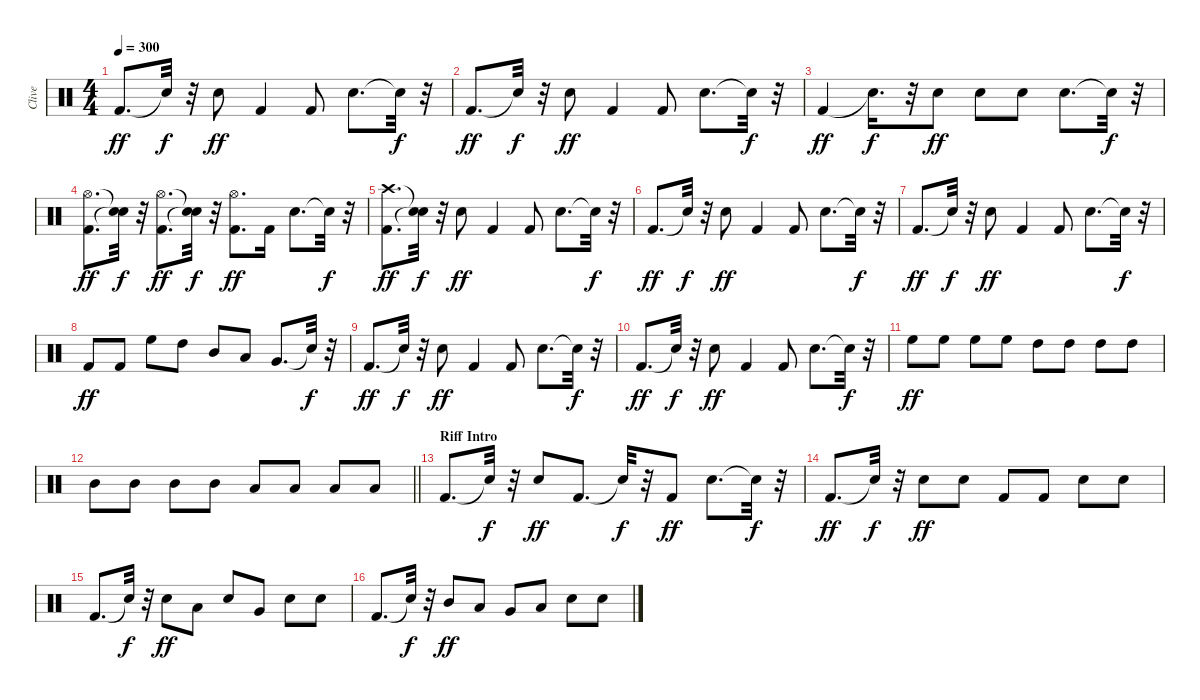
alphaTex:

\track ("Clive" "Clive") {instrument percussion}
\staff {score}
\articulation defaults
\ts (4 4)
\tempo 300
\clef neutral
\ks c "Kick (hit) 2".8{d dy ff} "Snare (hit)"{t}.32{dy f}
r.32 "Snare (hit) 2".8{dy ff} "Kick (hit) 2".4 "Kick (hit) 2".8 "Snare (hit) 2".8{d} "Snare (hit)"{t}.32{dy f} r.32 |
"Kick (hit) 2".8{d dy ff} "Snare (hit)"{t}.32{dy f} r.32 "Snare (hit) 2".8{dy ff} "Kick (hit) 2".4 "Kick (hit) 2".8 "Snare (hit) 2".8{d} "Snare (hit)"{t}.32{dy f} r.32 |
"Kick (hit) 2".4{dy ff} "Snare (hit)"{t}.16{d dy f} r.32 "Snare (hit) 2".8{dy ff} "Snare (hit) 2".8 "Snare (hit) 2".8 "Snare (hit) 2".8{d} "Snare (hit)"{t}.32{dy f} r.32 |
("Kick (hit) 2" "Hi-Hat (open)").8{d dy ff} ("Snare (hit)"{t} "Snare (hit)"{t}).32{dy f} r.32 ("Kick (hit) 2" "Hi-Hat (open)").8{d dy ff} ("Snare (hit)"{t} "Snare (hit)"{t}).32{dy f} r.32 ("Kick (hit) 2" "Hi-Hat (open)").8{d dy ff} "Kick (hit) 2".16 "Snare (hit) 2".8{d} "Snare (hit)"{t}.32{dy f} r.32 |
("Kick (hit) 2" "Crash high (hit)").8{d dy ff} ("Snare (hit)"{t} "Snare (hit)"{t}).32{dy f} r.32 "Snare (hit) 2".8{dy ff} "Kick (hit) 2".4 "Kick (hit) 2".8 "Snare (hit) 2".8{d} "Snare (hit)"{t}.32{dy f} r.32 |
"Kick (hit) 2".8{d dy ff} "Snare (hit)"{t}.32{dy f} r.32 "Snare (hit) 2".8{dy ff} "Kick (hit) 2".4 "Kick (hit) 2".8 "Snare (hit) 2".8{d} "Snare (hit)"{t}.32{dy f} r.32 |
"Kick (hit) 2".8{d dy ff} "Snare (hit)"{t}.32{dy f} r.32 "Snare (hit) 2".8{dy ff} "Kick (hit) 2".4 "Kick (hit) 2".8 "Snare (hit) 2".8{d} "Snare (hit)"{t}.32{dy f} r.32 |
"Kick (hit) 2".8{dy ff} "Kick (hit) 2".8 "High Floor Tom (hit)".8 "High Tom (hit)".8 "Mid Tom (hit)".8 "Low Tom (hit)".8 "Very Low Tom (hit)".8{d} "Snare (hit)"{t}.32{dy f} r.32 |
"Kick (hit) 2".8{d dy ff} "Snare (hit)"{t}.32{dy f} r.32 "Snare (hit) 2".8{dy ff} "Kick (hit) 2".4 "Kick (hit) 2".8 "Snare (hit) 2".8{d} "Snare (hit)"{t}.32{dy f} r.32 |
"Kick (hit) 2".8{d dy ff} "Snare (hit)"{t}.32{dy f} r.32 "Snare (hit) 2".8{dy ff} "Kick (hit) 2".4 "Kick (hit) 2".8 "Snare (hit) 2".8{d} "Snare (hit)"{t}.32{dy f} r.32 |
"High Floor Tom (hit)".8{dy ff} "High Floor Tom (hit)".8 "High Floor Tom (hit)".8 "High Floor Tom (hit)".8 "High Tom (hit)".8 "High Tom (hit)".8 "High Tom (hit)".8 "High Tom (hit)".8 |
\barLineRight lightlight "Mid Tom (hit)".8 "Mid Tom (hit)".8 "Mid Tom (hit)".8 "Mid Tom (hit)".8 "Low Tom (hit)".8 "Low Tom (hit)".8 "Low Tom (hit)".8 "Low Tom (hit)".8
|
\section ("" "Riff Intro")
"Kick (hit) 2".8{d} "Snare (hit)"{t}.32{dy f} r.32 "Snare (hit) 2".8{dy ff} "Kick (hit) 2".8{d} "Snare (hit)"{t}.32{dy f} r.32 "Kick (hit) 2".8{dy ff} "Snare (hit) 2".8{d} "Snare (hit)"{t}.32{dy f} r.32 |
"Kick (hit) 2".8{d dy ff} "Snare (hit)"{t}.32{dy f} r.32 "Snare (hit) 2".8{dy ff} "Snare (hit) 2".8 "Kick (hit) 2".8 "Kick (hit) 2".8 "Snare (hit) 2".8 "Snare (hit) 2".8 |
"Kick (hit) 2".8{d} "Snare (hit)"{t}.32{dy f} r.32 "Snare (hit) 2".8{dy ff} "Low Tom (hit)".8 "Snare (hit) 2".8 "Very Low Tom (hit)".8 "Snare (hit) 2".8 "Snare (hit) 2".8 |
"Kick (hit) 2".8{d} "Snare (hit)"{t}.32{dy f} r.32 "Mid Tom (hit)".8{dy ff} "Low Tom (hit)".8 "Very Low Tom (hit)".8 "Low Floor Tom (hit)".8 "Snare (hit) 2".8 "Snare (hit) 2".8
